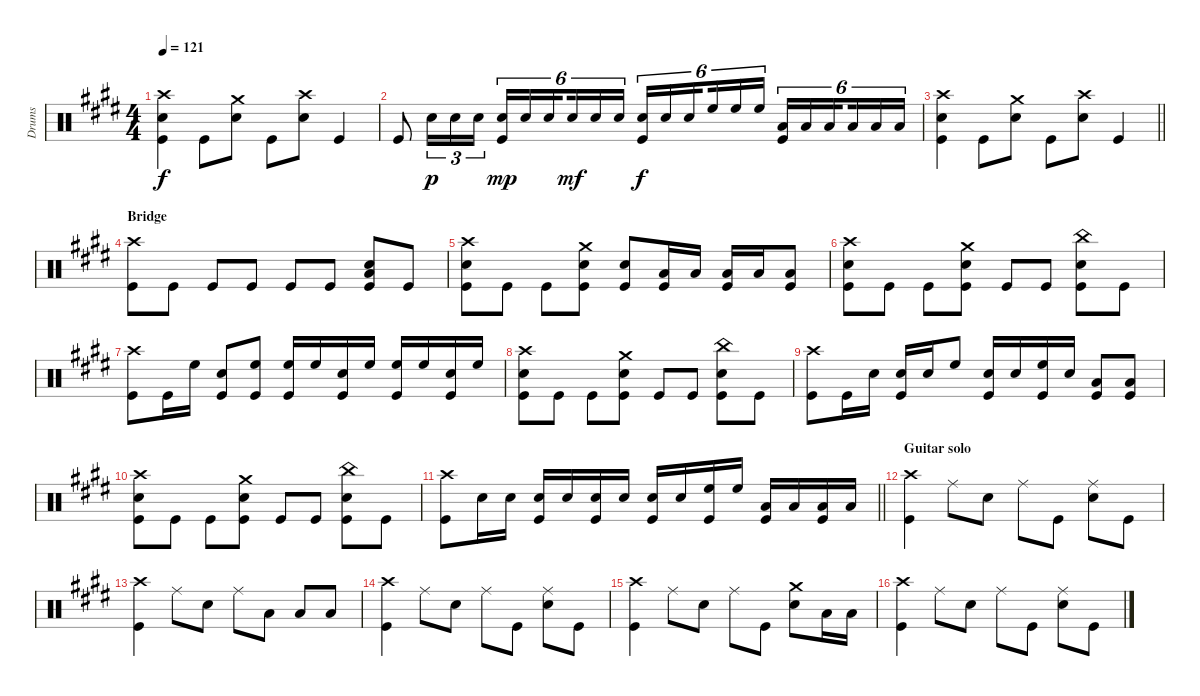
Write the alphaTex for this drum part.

\track ("Drums" "Drums") {instrument percussion}
\staff {score}
\articulation defaults
\ts (4 4)
\tempo 121
\clef neutral
\ks e
("Crash high (hit)" "Snare (hit) 2" "Kick (hit)").4{dy f} "Kick (hit)".8 ("Crash medium (hit)" "Snare (hit) 2").8 "Kick (hit)".8 ("Crash high (hit)" "Snare (hit) 2").8 "Kick (hit)".4 |
"Kick (hit)".8 "Snare (hit) 2".16{tu (3 2) dy p} "Snare (hit) 2".16{tu (3 2)} "Snare (hit) 2".16{tu (3 2)} ("Snare (hit) 2" "Kick (hit)").16{tu (6 4) dy mp} "Snare (hit) 2".16{tu (6 4)} "Snare (hit) 2".16{tu (6 4) beam splitsecondary} "Snare (hit) 2".16{tu (6 4) dy mf} "Snare (hit) 2".16{tu (6 4)} "Snare (hit) 2".16{tu (6 4)} ("Snare (hit) 2" "Kick (hit)").16{tu (6 4) dy f} "Snare (hit) 2".16{tu (6 4)} "Snare (hit) 2".16{tu (6 4) beam splitsecondary} "High Floor Tom (hit)".16{tu (6 4)} "High Floor Tom (hit)".16{tu (6 4)} "High Floor Tom (hit)".16{tu (6 4)} ("Low Tom (hit)" "Kick (hit)").16{tu (6 4)} "Low Tom (hit)".16{tu (6 4)} "Low Tom (hit)".16{tu (6 4) beam splitsecondary} "Low Floor Tom (hit)".16{tu (6 4)} "Low Floor Tom (hit)".16{tu (6 4)} "Low Floor Tom (hit)".16{tu (6 4)} |
\barLineRight lightlight
("Crash high (hit)" "Snare (hit) 2" "Kick (hit)").4 "Kick (hit)".8 ("Crash medium (hit)" "Snare (hit) 2").8 "Kick (hit)".8 ("Crash high (hit)" "Snare (hit) 2").8 "Kick (hit)".4 |
\section ("" "Bridge")
("Crash high (hit)" "Kick (hit)").8 "Kick (hit)".8 "Kick (hit)".8 "Kick (hit)".8 "Kick (hit)".8 "Kick (hit)".8 ("Low Floor Tom (hit)" "Snare (hit) 2" "Kick (hit)").8 "Kick (hit)".8 |
("Crash high (hit)" "Snare (hit) 2" "Kick (hit)").8 "Kick (hit)".8 "Kick (hit)".8 ("Crash medium (hit)" "Snare (hit) 2" "Kick (hit)").8 ("Snare (hit) 2" "Kick (hit)").8 ("Low Tom (hit)" "Kick (hit)").16 "Low Tom (hit)".16 ("Low Floor Tom (hit)" "Kick (hit)").16 "Low Floor Tom (hit)".16 ("Low Floor Tom (hit)" "Kick (hit)").8 |
("Crash high (hit)" "Snare (hit) 2" "Kick (hit)").8 "Kick (hit)".8 "Kick (hit)".8 ("Crash medium (hit)" "Snare (hit) 2" "Kick (hit)").8 "Kick (hit)".8 "Kick (hit)".8 ("China (hit)" "Snare (hit) 2" "Kick (hit)").8 "Kick (hit)".8 |
("Crash high (hit)" "Kick (hit)").8 "Kick (hit)".16 "High Floor Tom (hit)".16 ("Snare (hit) 2" "Kick (hit)").8 ("High Floor Tom (hit)" "Kick (hit)").8 ("High Floor Tom (hit)" "Kick (hit)").16 "High Floor Tom (hit)".16 ("Snare (hit) 2" "Kick (hit)").16 "High Floor Tom (hit)".16 ("High Floor Tom (hit)" "Kick (hit)").16 "High Floor Tom (hit)".16 ("Snare (hit) 2" "Kick (hit)").16 "High Floor Tom (hit)".16 |
("Crash high (hit)" "Snare (hit) 2" "Kick (hit)").8 "Kick (hit)".8 "Kick (hit)".8 ("Crash medium (hit)" "Snare (hit) 2" "Kick (hit)").8 "Kick (hit)".8 "Kick (hit)".8 ("China (hit)" "Snare (hit) 2" "Kick (hit)").8 "Kick (hit)".8 |
("Crash high (hit)" "Kick (hit)").8 "Kick (hit)".16 "Snare (hit) 2".16 ("Snare (hit) 2" "Kick (hit)").16 "Snare (hit) 2".16 "High Floor Tom (hit)".8 ("Snare (hit) 2" "Kick (hit)").16 "Snare (hit) 2".16 ("High Floor Tom (hit)" "Kick (hit)").16 "Snare (hit) 2".16 ("Low Tom (hit)" "Kick (hit)").8 ("Low Floor Tom (hit)" "Kick (hit)").8 |
("Crash high (hit)" "Snare (hit) 2" "Kick (hit)").8 "Kick (hit)".8 "Kick (hit)".8 ("Crash medium (hit)" "Snare (hit) 2" "Kick (hit)").8 "Kick (hit)".8 "Kick (hit)".8 ("China (hit)" "Snare (hit) 2" "Kick (hit)").8 "Kick (hit)".8 |
\barLineRight lightlight
("Crash high (hit)" "Kick (hit)").8 "Snare (hit) 2".16 "Snare (hit) 2".16 ("Snare (hit) 2" "Kick (hit)").16 "Snare (hit) 2".16 ("Snare (hit) 2" "Kick (hit)").16 "Snare (hit) 2".16 ("Snare (hit) 2" "Kick (hit)").16 "Snare (hit) 2".16 ("High Floor Tom (hit)" "Kick (hit)").16 "High Floor Tom (hit)".16 ("Low Tom (hit)" "Kick (hit)").16 "Low Tom (hit)".16 ("Low Floor Tom (hit)" "Kick (hit)").16 "Low Floor Tom (hit)".16 |
\section ("" "Guitar solo")
("Crash high (hit)" "Kick (hit)").4 "Ride (middle)".8 "Snare (hit) 2".8 "Ride (middle)".8 "Kick (hit)".8 ("Ride (middle)" "Snare (hit) 2").8 "Kick (hit)".8 |
("Crash high (hit)" "Kick (hit)").4 "Ride (middle)".8 "Snare (hit) 2".8 "Ride (middle)".8 "Low Tom (hit)".8 "Low Floor Tom (hit)".8 "Low Floor Tom (hit)".8 |
("Crash high (hit)" "Kick (hit)").4 "Ride (middle)".8 "Snare (hit) 2".8 "Ride (middle)".8 "Kick (hit)".8 ("Ride (middle)" "Snare (hit) 2").8 "Kick (hit)".8 |
("Crash high (hit)" "Kick (hit)").4 "Ride (middle)".8 "Snare (hit) 2".8 "Ride (middle)".8 "Kick (hit)".8 ("Crash medium (hit)" "Snare (hit) 2").8 "Low Floor Tom (hit)".16 "Low Floor Tom (hit)".16 |
("Crash high (hit)" "Kick (hit)").4 "Ride (middle)".8 "Snare (hit) 2".8 "Ride (middle)".8 "Kick (hit)".8 ("Ride (middle)" "Snare (hit) 2").8 "Kick (hit)".8
